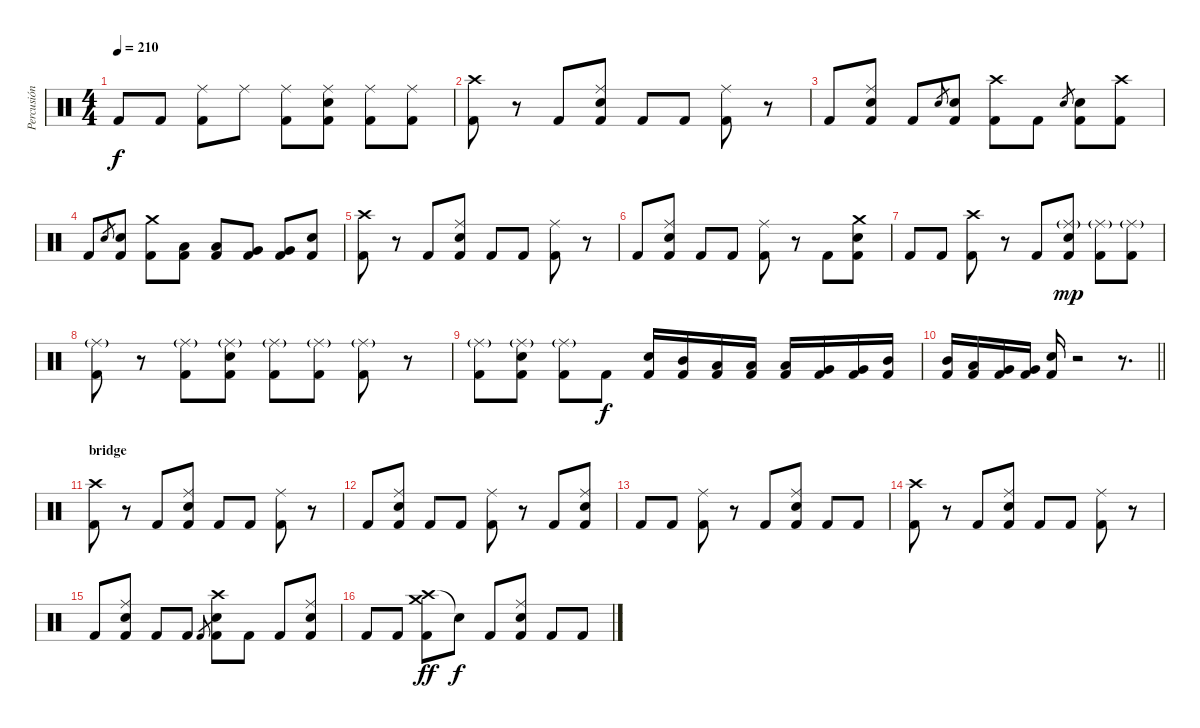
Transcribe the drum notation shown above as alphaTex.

\track ("Percusión" "Percusión") {instrument percussion}
\staff {score}
\articulation defaults
\ts (4 4)
\tempo 210
\clef neutral
\ks c "Kick (hit) 2".8{dy f} "Kick (hit) 2".8
("Ride (middle)" "Kick (hit) 2").8 "Ride (middle)".8 ("Ride (middle)" "Kick (hit) 2").8 ("Ride (middle)" "Snare (hit) 2" "Kick (hit) 2").8 ("Ride (middle)" "Kick (hit) 2").8 ("Ride (middle)" "Kick (hit) 2").8 |
("Crash high (hit)" "Kick (hit) 2").8 r.8 "Kick (hit) 2".8 ("Ride (middle)" "Snare (hit) 2" "Kick (hit) 2").8 "Kick (hit) 2".8 "Kick (hit) 2".8 ("Ride (middle)" "Kick (hit) 2").8 r.8 |
"Kick (hit) 2".8 ("Ride (middle)" "Snare (hit) 2" "Kick (hit) 2").8 "Kick (hit) 2".8 "Electric Snare (hit)".8{gr} ("Electric Snare (hit)" "Kick (hit) 2").8 ("Crash high (hit)" "Kick (hit) 2").8 "Kick (hit) 2".8 "Electric Snare (hit)".8{gr} ("Electric Snare (hit)" "Kick (hit) 2").8 ("Crash high (hit)" "Kick (hit) 2").8 |
"Kick (hit) 2".8 "Electric Snare (hit)".8{gr} ("Electric Snare (hit)" "Kick (hit) 2").8 ("Crash medium (hit)" "Kick (hit) 2").8 ("Low Tom (hit)" "Kick (hit) 2").8 ("Low Tom (hit)" "Kick (hit) 2").8 ("Very Low Tom (hit)" "Kick (hit) 2").8 ("Very Low Tom (hit)" "Kick (hit) 2").8 ("Snare (hit) 2" "Kick (hit) 2").8 |
("Crash high (hit)" "Kick (hit) 2").8 r.8 "Kick (hit) 2".8 ("Ride (middle)" "Snare (hit) 2" "Kick (hit) 2").8 "Kick (hit) 2".8 "Kick (hit) 2".8 ("Ride (middle)" "Kick (hit) 2").8 r.8 |
"Kick (hit) 2".8 ("Ride (middle)" "Snare (hit) 2" "Kick (hit) 2").8 "Kick (hit) 2".8 "Kick (hit) 2".8 ("Ride (middle)" "Kick (hit) 2").8 r.8 "Kick (hit) 2".8 ("Crash medium (hit)" "Snare (hit) 2" "Kick (hit) 2").8 |
"Kick (hit) 2".8 "Kick (hit) 2".8 ("Crash high (hit)" "Kick (hit) 2").8 r.8 "Kick (hit) 2".8 ("Ride (middle)"{g} "Snare (hit) 2" "Kick (hit) 2").8{dy mp} ("Ride (middle)"{g} "Kick (hit) 2").8 ("Ride (middle)"{g} "Kick (hit) 2").8 |
("Ride (middle)"{g} "Kick (hit) 2").8 r.8 ("Ride (middle)"{g} "Kick (hit) 2").8 ("Ride (middle)"{g} "Snare (hit) 2" "Kick (hit) 2").8 ("Ride (middle)"{g} "Kick (hit) 2").8 ("Ride (middle)"{g} "Kick (hit) 2").8 ("Ride (middle)"{g} "Kick (hit) 2").8 r.8 |
("Ride (middle)"{g} "Kick (hit) 2").8 ("Ride (middle)"{g} "Snare (hit) 2" "Kick (hit) 2").8 ("Ride (middle)"{g} "Kick (hit) 2").8 "Kick (hit) 2".8{dy f} ("Snare (hit) 2" "Kick (hit) 2").16 ("Mid Tom (hit)" "Kick (hit) 2").16 ("Low Tom (hit)" "Kick (hit) 2").16 ("Low Tom (hit)" "Kick (hit) 2").16 ("Low Tom (hit)" "Kick (hit) 2").16 ("Very Low Tom (hit)" "Kick (hit) 2").16 ("Very Low Tom (hit)" "Kick (hit) 2").16 ("Mid Tom (hit)" "Kick (hit) 2").16 |
\barLineRight lightlight
("Mid Tom (hit)" "Kick (hit) 2").16 ("Low Tom (hit)" "Kick (hit) 2").16 ("Very Low Tom (hit)" "Kick (hit) 2").16 ("Very Low Tom (hit)" "Kick (hit) 2").16 ("Snare (hit) 2" "Kick (hit) 2").16 r.2 r.8{d} |
\section ("" "bridge")
("Crash high (hit)" "Kick (hit) 2").8 r.8 "Kick (hit) 2".8 ("Ride (middle)" "Snare (hit) 2" "Kick (hit) 2").8 "Kick (hit) 2".8 "Kick (hit) 2".8 ("Ride (middle)" "Kick (hit) 2").8 r.8 |
"Kick (hit) 2".8 ("Ride (middle)" "Snare (hit) 2" "Kick (hit) 2").8 "Kick (hit) 2".8 "Kick (hit) 2".8 ("Ride (middle)" "Kick (hit) 2").8 r.8 "Kick (hit) 2".8 ("Ride (middle)" "Snare (hit) 2" "Kick (hit) 2").8 |
"Kick (hit) 2".8 "Kick (hit) 2".8 ("Ride (middle)" "Kick (hit) 2").8 r.8 "Kick (hit) 2".8 ("Ride (middle)" "Snare (hit) 2" "Kick (hit) 2").8 "Kick (hit) 2".8 "Kick (hit) 2".8 |
("Crash high (hit)" "Kick (hit) 2").8 r.8 "Kick (hit) 2".8 ("Ride (middle)" "Snare (hit) 2" "Kick (hit) 2").8 "Kick (hit) 2".8 "Kick (hit) 2".8 ("Ride (middle)" "Kick (hit) 2").8 r.8 |
"Kick (hit) 2".8 ("Ride (middle)" "Snare (hit) 2" "Kick (hit) 2").8 "Kick (hit) 2".8 "Kick (hit) 2".8 "Kick (hit) 2".8{gr} ("Crash high (hit)" "Snare (hit) 2" "Kick (hit) 2").8 "Kick (hit) 2".8 "Kick (hit) 2".8 ("Ride (middle)" "Snare (hit) 2" "Kick (hit) 2").8 |
"Kick (hit) 2".8 "Kick (hit) 2".8 ("Crash high (hit)" "Crash medium (hit)" "Kick (hit) 2").8{dy ff} "Snare (hit)"{t}.8{dy f} "Kick (hit) 2".8 ("Ride (middle)" "Snare (hit) 2" "Kick (hit) 2").8 "Kick (hit) 2".8 "Kick (hit) 2".8
